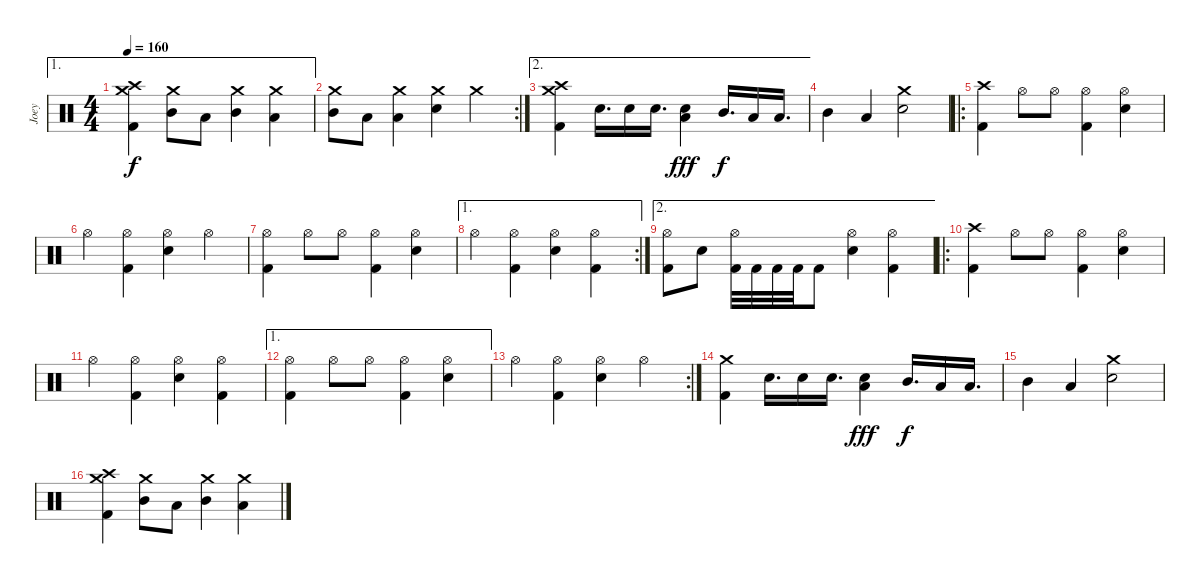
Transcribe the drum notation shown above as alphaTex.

\track ("Joey" "Joey") {instrument percussion}
\staff {score}
\articulation defaults
\ae 1
\ts (4 4)
\tempo 160
\clef neutral
\ks c
("Crash high (hit)" "Crash medium (hit)" "Kick (hit) 2").4{dy f} ("Crash medium (hit)" "Mid Tom (hit)").8 "Low Tom (hit)".8 ("Crash medium (hit)" "Mid Tom (hit)").4 ("Crash medium (hit)" "Low Tom (hit)").4 |
\rc 2
("Crash medium (hit)" "Mid Tom (hit)").8 "Low Tom (hit)".8 ("Crash medium (hit)" "Low Tom (hit)").4 ("Crash medium (hit)" "Electric Snare (hit)").4 "Crash medium (hit)".4 |
\ae 2
("Crash high (hit)" "Crash medium (hit)" "Kick (hit) 2").4 "Electric Snare (hit)".16{d} "Electric Snare (hit)".16 "Electric Snare (hit)".16{d} ("Electric Snare (hit)" "Low Floor Tom (hit)").4{dy fff} "Mid Tom (hit)".16{d dy f} "Low Tom (hit)".16 "Low Tom (hit)".16{d} |
"Mid Tom (hit)".4 "Low Tom (hit)".4 ("Crash medium (hit)" "Electric Snare (hit)").2 |
\ro
("Crash high (hit)" "Kick (hit) 2").4 "Hi-Hat (open)".8 "Hi-Hat (open)".8 ("Hi-Hat (open)" "Kick (hit) 2").4 ("Hi-Hat (open)" "Electric Snare (hit)").4 |
"Hi-Hat (open)".4 ("Hi-Hat (open)" "Kick (hit) 2").4 ("Hi-Hat (open)" "Electric Snare (hit)").4 "Hi-Hat (open)".4 |
("Hi-Hat (open)" "Kick (hit) 2").4 "Hi-Hat (open)".8 "Hi-Hat (open)".8 ("Hi-Hat (open)" "Kick (hit) 2").4 ("Hi-Hat (open)" "Electric Snare (hit)").4 |
\ae 1
\rc 2 "Hi-Hat (open)".4
("Hi-Hat (open)" "Kick (hit) 2").4 ("Hi-Hat (open)" "Electric Snare (hit)").4 ("Hi-Hat (open)" "Kick (hit) 2").4 |
\ae 2
("Hi-Hat (open)" "Kick (hit) 2").8 "Electric Snare (hit)".8 ("Hi-Hat (open)" "Kick (hit) 2").32 "Kick (hit) 2".32 "Kick (hit) 2".32 "Kick (hit) 2".32 "Kick (hit) 2".8 ("Hi-Hat (open)" "Electric Snare (hit)").4 ("Hi-Hat (open)" "Kick (hit) 2").4 |
\ro
("Crash high (hit)" "Kick (hit) 2").4 "Hi-Hat (open)".8 "Hi-Hat (open)".8 ("Hi-Hat (open)" "Kick (hit) 2").4 ("Hi-Hat (open)" "Electric Snare (hit)").4 |
"Hi-Hat (open)".4 ("Hi-Hat (open)" "Kick (hit) 2").4 ("Hi-Hat (open)" "Electric Snare (hit)").4 ("Hi-Hat (open)" "Kick (hit) 2").4 |
\ae 1
("Hi-Hat (open)" "Kick (hit) 2").4 "Hi-Hat (open)".8 "Hi-Hat (open)".8 ("Hi-Hat (open)" "Kick (hit) 2").4 ("Hi-Hat (open)" "Electric Snare (hit)").4 |
\rc 2 "Hi-Hat (open)".4
("Hi-Hat (open)" "Kick (hit) 2").4 ("Hi-Hat (open)" "Electric Snare (hit)").4 "Hi-Hat (open)".4 |
("Crash medium (hit)" "Kick (hit) 2").4 "Electric Snare (hit)".16{d} "Electric Snare (hit)".16 "Electric Snare (hit)".16{d} ("Electric Snare (hit)" "Low Floor Tom (hit)").4{dy fff} "Mid Tom (hit)".16{d dy f} "Low Tom (hit)".16 "Low Tom (hit)".16{d} |
"Mid Tom (hit)".4 "Low Tom (hit)".4 ("Crash medium (hit)" "Electric Snare (hit)").2 |
("Crash high (hit)" "Crash medium (hit)" "Kick (hit) 2").4 ("Crash medium (hit)" "Mid Tom (hit)").8 "Low Tom (hit)".8 ("Crash medium (hit)" "Mid Tom (hit)").4 ("Crash medium (hit)" "Low Tom (hit)").4
